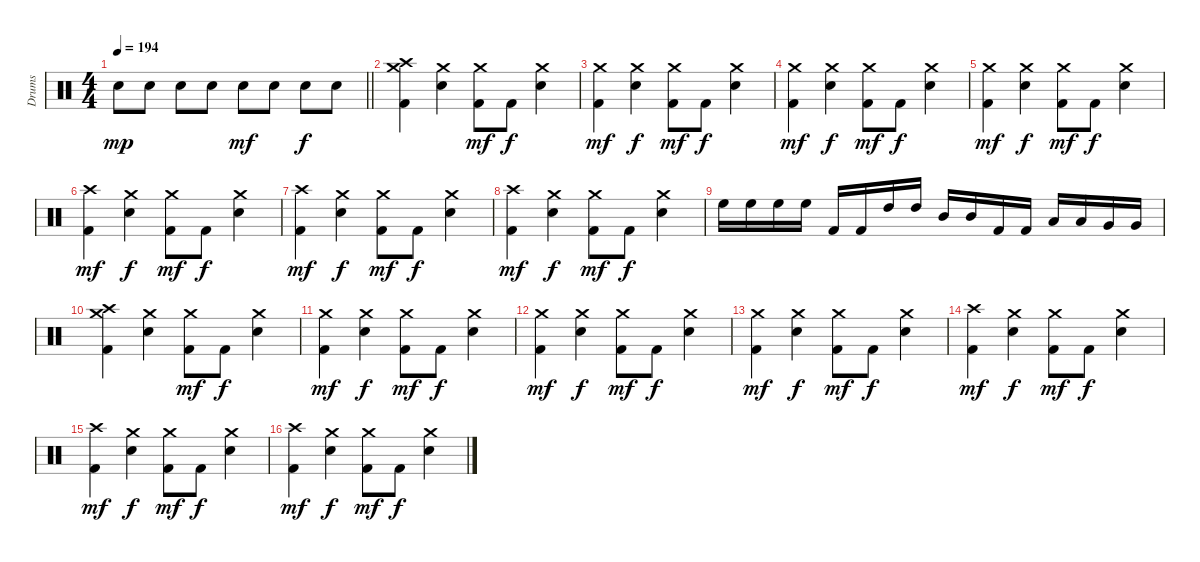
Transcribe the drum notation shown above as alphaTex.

\track ("Drums" "Drums") {instrument percussion}
\staff {score}
\articulation defaults
\ts (4 4)
\tempo 194
\clef neutral
\barLineRight lightlight
\ks c "Electric Snare (hit)".8{dy mp} "Electric Snare (hit)".8 "Electric Snare (hit)".8 "Electric Snare (hit)".8 "Electric Snare (hit)".8{dy mf} "Electric Snare (hit)".8 "Electric Snare (hit)".8{dy f} "Electric Snare (hit)".8
|
("Crash high (hit)" "Crash medium (hit)" "Kick (hit) 2").4 ("Crash medium (hit)" "Electric Snare (hit)").4 ("Crash medium (hit)" "Kick (hit) 2").8{dy mf} "Kick (hit) 2".8{dy f} ("Crash medium (hit)" "Electric Snare (hit)").4 |
("Crash medium (hit)" "Kick (hit) 2").4{dy mf} ("Crash medium (hit)" "Electric Snare (hit)").4{dy f} ("Crash medium (hit)" "Kick (hit) 2").8{dy mf} "Kick (hit) 2".8{dy f} ("Crash medium (hit)" "Electric Snare (hit)").4 |
("Crash medium (hit)" "Kick (hit) 2").4{dy mf} ("Crash medium (hit)" "Electric Snare (hit)").4{dy f} ("Crash medium (hit)" "Kick (hit) 2").8{dy mf} "Kick (hit) 2".8{dy f} ("Crash medium (hit)" "Electric Snare (hit)").4 |
("Crash medium (hit)" "Kick (hit) 2").4{dy mf} ("Crash medium (hit)" "Electric Snare (hit)").4{dy f} ("Crash medium (hit)" "Kick (hit) 2").8{dy mf} "Kick (hit) 2".8{dy f} ("Crash medium (hit)" "Electric Snare (hit)").4 |
("Crash high (hit)" "Kick (hit) 2").4{dy mf} ("Crash medium (hit)" "Electric Snare (hit)").4{dy f} ("Crash medium (hit)" "Kick (hit) 2").8{dy mf} "Kick (hit) 2".8{dy f} ("Crash medium (hit)" "Electric Snare (hit)").4 |
("Crash high (hit)" "Kick (hit) 2").4{dy mf} ("Crash medium (hit)" "Electric Snare (hit)").4{dy f} ("Crash medium (hit)" "Kick (hit) 2").8{dy mf} "Kick (hit) 2".8{dy f} ("Crash medium (hit)" "Electric Snare (hit)").4 |
("Crash high (hit)" "Kick (hit) 2").4{dy mf} ("Crash medium (hit)" "Electric Snare (hit)").4{dy f} ("Crash medium (hit)" "Kick (hit) 2").8{dy mf} "Kick (hit) 2".8{dy f} ("Crash medium (hit)" "Electric Snare (hit)").4 |
"High Floor Tom (hit)".16 "High Floor Tom (hit)".16 "High Floor Tom (hit)".16 "High Floor Tom (hit)".16 "Kick (hit) 2".16 "Kick (hit) 2".16 "High Tom (hit)".16 "High Tom (hit)".16 "Mid Tom (hit)".16 "Mid Tom (hit)".16 "Kick (hit) 2".16 "Kick (hit) 2".16 "Low Tom (hit)".16 "Low Tom (hit)".16 "Very Low Tom (hit)".16 "Very Low Tom (hit)".16 |
("Crash high (hit)" "Crash medium (hit)" "Kick (hit) 2").4 ("Crash medium (hit)" "Electric Snare (hit)").4 ("Crash medium (hit)" "Kick (hit) 2").8{dy mf} "Kick (hit) 2".8{dy f} ("Crash medium (hit)" "Electric Snare (hit)").4 |
("Crash medium (hit)" "Kick (hit) 2").4{dy mf} ("Crash medium (hit)" "Electric Snare (hit)").4{dy f} ("Crash medium (hit)" "Kick (hit) 2").8{dy mf} "Kick (hit) 2".8{dy f} ("Crash medium (hit)" "Electric Snare (hit)").4 |
("Crash medium (hit)" "Kick (hit) 2").4{dy mf} ("Crash medium (hit)" "Electric Snare (hit)").4{dy f} ("Crash medium (hit)" "Kick (hit) 2").8{dy mf} "Kick (hit) 2".8{dy f} ("Crash medium (hit)" "Electric Snare (hit)").4 |
("Crash medium (hit)" "Kick (hit) 2").4{dy mf} ("Crash medium (hit)" "Electric Snare (hit)").4{dy f} ("Crash medium (hit)" "Kick (hit) 2").8{dy mf} "Kick (hit) 2".8{dy f} ("Crash medium (hit)" "Electric Snare (hit)").4 |
("Crash high (hit)" "Kick (hit) 2").4{dy mf} ("Crash medium (hit)" "Electric Snare (hit)").4{dy f} ("Crash medium (hit)" "Kick (hit) 2").8{dy mf} "Kick (hit) 2".8{dy f} ("Crash medium (hit)" "Electric Snare (hit)").4 |
("Crash high (hit)" "Kick (hit) 2").4{dy mf} ("Crash medium (hit)" "Electric Snare (hit)").4{dy f} ("Crash medium (hit)" "Kick (hit) 2").8{dy mf} "Kick (hit) 2".8{dy f} ("Crash medium (hit)" "Electric Snare (hit)").4 |
("Crash high (hit)" "Kick (hit) 2").4{dy mf} ("Crash medium (hit)" "Electric Snare (hit)").4{dy f} ("Crash medium (hit)" "Kick (hit) 2").8{dy mf} "Kick (hit) 2".8{dy f} ("Crash medium (hit)" "Electric Snare (hit)").4
